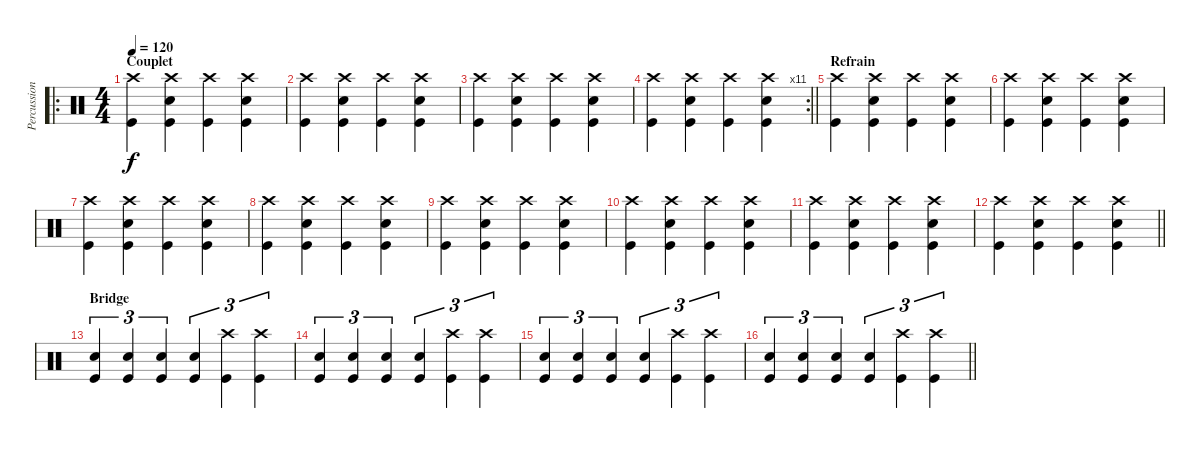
\track ("Percussions" "Percussion") {instrument percussion}
\staff {score}
\articulation defaults
\ro
\ts (4 4)
\section ("" "Couplet")
\tempo 120
\clef neutral
\ks c
("Crash high (hit)" "Kick (hit)").4{dy f} ("Crash high (hit)" "Snare (hit) 2" "Kick (hit)").4 ("Crash high (hit)" "Kick (hit)").4 ("Crash high (hit)" "Snare (hit) 2" "Kick (hit)").4 |
("Crash high (hit)" "Kick (hit)").4 ("Crash high (hit)" "Snare (hit) 2" "Kick (hit)").4 ("Crash high (hit)" "Kick (hit)").4 ("Crash high (hit)" "Snare (hit) 2" "Kick (hit)").4 |
("Crash high (hit)" "Kick (hit)").4 ("Crash high (hit)" "Snare (hit) 2" "Kick (hit)").4 ("Crash high (hit)" "Kick (hit)").4 ("Crash high (hit)" "Snare (hit) 2" "Kick (hit)").4 |
\rc 11
\barLineRight lightlight
("Crash high (hit)" "Kick (hit)").4 ("Crash high (hit)" "Snare (hit) 2" "Kick (hit)").4 ("Crash high (hit)" "Kick (hit)").4 ("Crash high (hit)" "Snare (hit) 2" "Kick (hit)").4 |
\section ("" "Refrain")
("Crash high (hit)" "Kick (hit)").4 ("Crash high (hit)" "Snare (hit) 2" "Kick (hit)").4 ("Crash high (hit)" "Kick (hit)").4 ("Crash high (hit)" "Snare (hit) 2" "Kick (hit)").4 |
("Crash high (hit)" "Kick (hit)").4 ("Crash high (hit)" "Snare (hit) 2" "Kick (hit)").4 ("Crash high (hit)" "Kick (hit)").4 ("Crash high (hit)" "Snare (hit) 2" "Kick (hit)").4 |
("Crash high (hit)" "Kick (hit)").4 ("Crash high (hit)" "Snare (hit) 2" "Kick (hit)").4 ("Crash high (hit)" "Kick (hit)").4 ("Crash high (hit)" "Snare (hit) 2" "Kick (hit)").4 |
("Crash high (hit)" "Kick (hit)").4 ("Crash high (hit)" "Snare (hit) 2" "Kick (hit)").4 ("Crash high (hit)" "Kick (hit)").4 ("Crash high (hit)" "Snare (hit) 2" "Kick (hit)").4 |
("Crash high (hit)" "Kick (hit)").4 ("Crash high (hit)" "Snare (hit) 2" "Kick (hit)").4 ("Crash high (hit)" "Kick (hit)").4 ("Crash high (hit)" "Snare (hit) 2" "Kick (hit)").4 |
("Crash high (hit)" "Kick (hit)").4 ("Crash high (hit)" "Snare (hit) 2" "Kick (hit)").4 ("Crash high (hit)" "Kick (hit)").4 ("Crash high (hit)" "Snare (hit) 2" "Kick (hit)").4 |
("Crash high (hit)" "Kick (hit)").4 ("Crash high (hit)" "Snare (hit) 2" "Kick (hit)").4 ("Crash high (hit)" "Kick (hit)").4 ("Crash high (hit)" "Snare (hit) 2" "Kick (hit)").4 |
\barLineRight lightlight
("Crash high (hit)" "Kick (hit)").4 ("Crash high (hit)" "Snare (hit) 2" "Kick (hit)").4 ("Crash high (hit)" "Kick (hit)").4 ("Crash high (hit)" "Snare (hit) 2" "Kick (hit)").4 |
\section ("" "Bridge")
("Kick (hit)" "Snare (hit) 2").4{tu (3 2)} ("Kick (hit)" "Snare (hit) 2").4{tu (3 2)} ("Kick (hit)" "Snare (hit) 2").4{tu (3 2)} ("Kick (hit)" "Snare (hit) 2").4{tu (3 2)} ("Kick (hit)" "Crash high (hit)").4{tu (3 2)} ("Kick (hit)" "Crash high (hit)").4{tu (3 2)} |
("Kick (hit)" "Snare (hit) 2").4{tu (3 2)} ("Kick (hit)" "Snare (hit) 2").4{tu (3 2)} ("Kick (hit)" "Snare (hit) 2").4{tu (3 2)} ("Kick (hit)" "Snare (hit) 2").4{tu (3 2)} ("Kick (hit)" "Crash high (hit)").4{tu (3 2)} ("Kick (hit)" "Crash high (hit)").4{tu (3 2)} |
("Kick (hit)" "Snare (hit) 2").4{tu (3 2)} ("Kick (hit)" "Snare (hit) 2").4{tu (3 2)} ("Kick (hit)" "Snare (hit) 2").4{tu (3 2)} ("Kick (hit)" "Snare (hit) 2").4{tu (3 2)} ("Kick (hit)" "Crash high (hit)").4{tu (3 2)} ("Kick (hit)" "Crash high (hit)").4{tu (3 2)} |
\barLineRight lightlight
("Kick (hit)" "Snare (hit) 2").4{tu (3 2)} ("Kick (hit)" "Snare (hit) 2").4{tu (3 2)} ("Kick (hit)" "Snare (hit) 2").4{tu (3 2)} ("Kick (hit)" "Snare (hit) 2").4{tu (3 2)} ("Kick (hit)" "Crash high (hit)").4{tu (3 2)} ("Kick (hit)" "Crash high (hit)").4{tu (3 2)}
